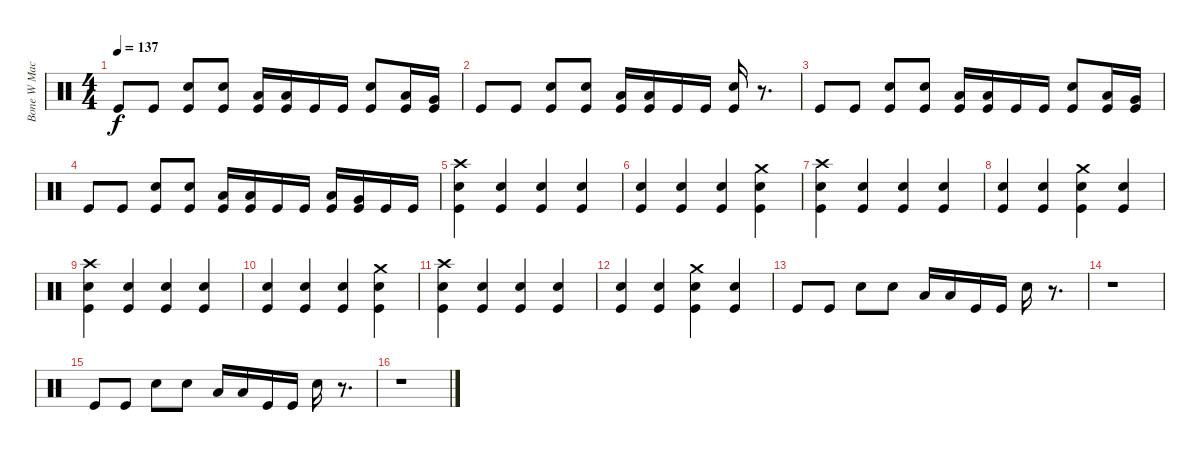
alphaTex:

\track ("Bone W Machine Drums" "Bone W Mac") {instrument percussion}
\staff {score}
\articulation defaults
\ts (4 4)
\tempo 137
\clef neutral
\ks c "Kick (hit)".8{dy f} "Kick (hit)".8
("Snare (hit) 2" "Kick (hit)").8 ("Snare (hit) 2" "Kick (hit)").8 ("Low Tom (hit)" "Kick (hit)").16 ("Low Tom (hit)" "Kick (hit)").16 "Kick (hit)".16 "Kick (hit)".16 ("Snare (hit) 2" "Kick (hit)").8 ("Low Tom (hit)" "Kick (hit)").16 ("Very Low Tom (hit)" "Kick (hit)").16 |
"Kick (hit)".8 "Kick (hit)".8 ("Snare (hit) 2" "Kick (hit)").8 ("Snare (hit) 2" "Kick (hit)").8 ("Low Tom (hit)" "Kick (hit)").16 ("Low Tom (hit)" "Kick (hit)").16 "Kick (hit)".16 "Kick (hit)".16 ("Snare (hit) 2" "Kick (hit)").16 r.8{d} |
"Kick (hit)".8 "Kick (hit)".8 ("Snare (hit) 2" "Kick (hit)").8 ("Snare (hit) 2" "Kick (hit)").8 ("Low Tom (hit)" "Kick (hit)").16 ("Low Tom (hit)" "Kick (hit)").16 "Kick (hit)".16 "Kick (hit)".16 ("Snare (hit) 2" "Kick (hit)").8 ("Low Tom (hit)" "Kick (hit)").16 ("Very Low Tom (hit)" "Kick (hit)").16 |
"Kick (hit)".8 "Kick (hit)".8 ("Snare (hit) 2" "Kick (hit)").8 ("Snare (hit) 2" "Kick (hit)").8 ("Low Tom (hit)" "Kick (hit)").16 ("Low Tom (hit)" "Kick (hit)").16 "Kick (hit)".16 "Kick (hit)".16 ("Low Tom (hit)" "Kick (hit)").16 ("Very Low Tom (hit)" "Kick (hit)").16 "Kick (hit)".16 "Kick (hit)".16 |
("Crash high (hit)" "Snare (hit) 2" "Kick (hit)").4 ("Snare (hit) 2" "Kick (hit)").4 ("Snare (hit) 2" "Kick (hit)").4 ("Snare (hit) 2" "Kick (hit)").4 |
("Snare (hit) 2" "Kick (hit)").4 ("Snare (hit) 2" "Kick (hit)").4 ("Snare (hit) 2" "Kick (hit)").4 ("Crash medium (hit)" "Snare (hit) 2" "Kick (hit)").4 |
("Crash high (hit)" "Snare (hit) 2" "Kick (hit)").4 ("Snare (hit) 2" "Kick (hit)").4 ("Snare (hit) 2" "Kick (hit)").4 ("Snare (hit) 2" "Kick (hit)").4 |
("Snare (hit) 2" "Kick (hit)").4 ("Snare (hit) 2" "Kick (hit)").4 ("Crash medium (hit)" "Snare (hit) 2" "Kick (hit)").4 ("Snare (hit) 2" "Kick (hit)").4 |
("Crash high (hit)" "Snare (hit) 2" "Kick (hit)").4 ("Snare (hit) 2" "Kick (hit)").4 ("Snare (hit) 2" "Kick (hit)").4 ("Snare (hit) 2" "Kick (hit)").4 |
("Snare (hit) 2" "Kick (hit)").4 ("Snare (hit) 2" "Kick (hit)").4 ("Snare (hit) 2" "Kick (hit)").4 ("Crash medium (hit)" "Snare (hit) 2" "Kick (hit)").4 |
("Crash high (hit)" "Snare (hit) 2" "Kick (hit)").4 ("Snare (hit) 2" "Kick (hit)").4 ("Snare (hit) 2" "Kick (hit)").4 ("Snare (hit) 2" "Kick (hit)").4 |
("Snare (hit) 2" "Kick (hit)").4 ("Snare (hit) 2" "Kick (hit)").4 ("Crash medium (hit)" "Snare (hit) 2" "Kick (hit)").4 ("Snare (hit) 2" "Kick (hit)").4 |
"Kick (hit)".8 "Kick (hit)".8 "Snare (hit) 2".8 "Snare (hit) 2".8 "Low Tom (hit)".16 "Low Tom (hit)".16 "Kick (hit)".16 "Kick (hit)".16 "Snare (hit) 2".16 r.8{d} |
r.1 |
"Kick (hit)".8 "Kick (hit)".8 "Snare (hit) 2".8 "Snare (hit) 2".8 "Low Tom (hit)".16 "Low Tom (hit)".16 "Kick (hit)".16 "Kick (hit)".16 "Snare (hit) 2".16 r.8{d} |
r.1
